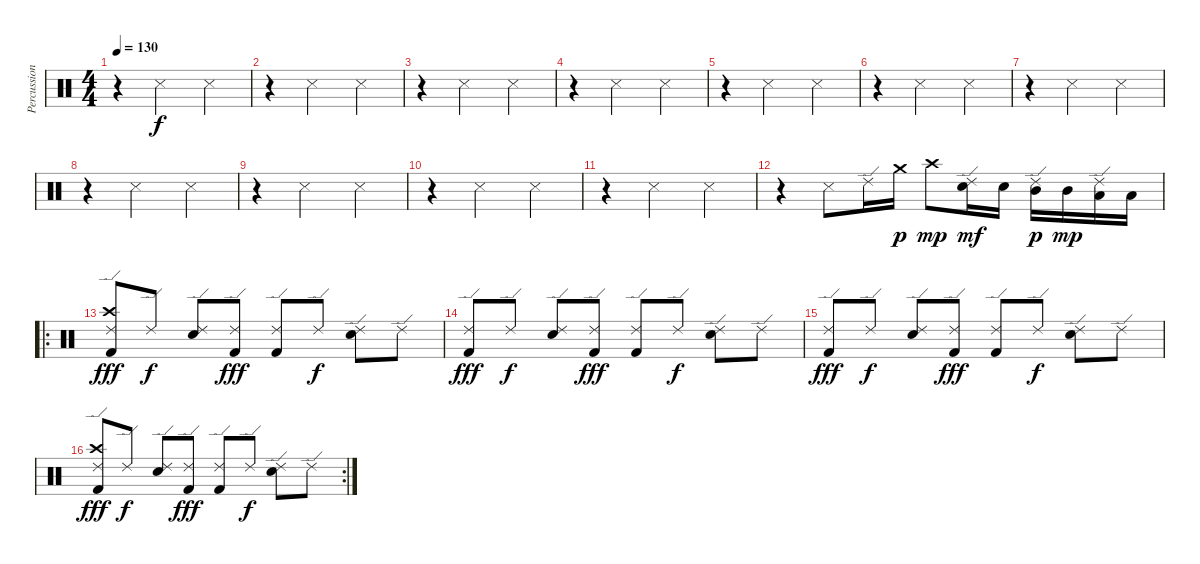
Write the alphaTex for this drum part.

\track ("Percussion" "Percussion") {instrument percussion}
\staff {score}
\articulation defaults
\ts (4 4)
\tempo 130
\clef neutral
\ks c
r.4{dy f} "Snare (side stick) 3".2 "Snare (side stick) 3".4 |
r.4 "Snare (side stick) 3".2 "Snare (side stick) 3".4 |
r.4 "Snare (side stick) 3".2 "Snare (side stick) 3".4 |
r.4 "Snare (side stick) 3".2 "Snare (side stick) 3".4 |
r.4 "Snare (side stick) 3".2 "Snare (side stick) 3".4 |
r.4 "Snare (side stick) 3".2 "Snare (side stick) 3".4 |
r.4 "Snare (side stick) 3".2 "Snare (side stick) 3".4 |
r.4 "Snare (side stick) 3".2 "Snare (side stick) 3".4 |
r.4 "Snare (side stick) 3".2 "Snare (side stick) 3".4 |
r.4 "Snare (side stick) 3".2 "Snare (side stick) 3".4 |
r.4 "Snare (side stick) 3".2 "Snare (side stick) 3".4 |
r.4 "Snare (side stick) 3".8 "Ride (edge) 2".16 "Crash medium (hit)".16{dy p} "Crash high (hit)".8{dy mp} ("Ride (edge) 2" "Electric Snare (hit)").16{dy mf} "Electric Snare (hit)".16 ("Mid Tom (hit)" "Ride (edge) 2").16{dy p} "Mid Tom (hit)".16{dy mp} ("Low Tom (hit)" "Ride (edge) 2").16 "Low Tom (hit)".16 |
\ro
("Crash high (hit)" "Ride (edge) 2" "Kick (hit) 2").8{dy fff} "Ride (edge) 2".8{dy f} ("Ride (edge) 2" "Electric Snare (hit)").8 ("Ride (edge) 2" "Kick (hit) 2").8{dy fff} ("Ride (edge) 2" "Kick (hit) 2").8 "Ride (edge) 2".8{dy f} ("Ride (edge) 2" "Electric Snare (hit)").8 "Ride (edge) 2".8 |
("Ride (edge) 2" "Kick (hit) 2").8{dy fff} "Ride (edge) 2".8{dy f} ("Ride (edge) 2" "Electric Snare (hit)").8 ("Ride (edge) 2" "Kick (hit) 2").8{dy fff} ("Ride (edge) 2" "Kick (hit) 2").8 "Ride (edge) 2".8{dy f} ("Ride (edge) 2" "Electric Snare (hit)").8 "Ride (edge) 2".8 |
("Ride (edge) 2" "Kick (hit) 2").8{dy fff} "Ride (edge) 2".8{dy f} ("Ride (edge) 2" "Electric Snare (hit)").8 ("Ride (edge) 2" "Kick (hit) 2").8{dy fff} ("Ride (edge) 2" "Kick (hit) 2").8 "Ride (edge) 2".8{dy f} ("Ride (edge) 2" "Electric Snare (hit)").8 "Ride (edge) 2".8 |
\rc 2
("Crash high (hit)" "Ride (edge) 2" "Kick (hit) 2").8{dy fff} "Ride (edge) 2".8{dy f} ("Ride (edge) 2" "Electric Snare (hit)").8 ("Ride (edge) 2" "Kick (hit) 2").8{dy fff} ("Ride (edge) 2" "Kick (hit) 2").8 "Ride (edge) 2".8{dy f} ("Ride (edge) 2" "Electric Snare (hit)").8 "Ride (edge) 2".8
